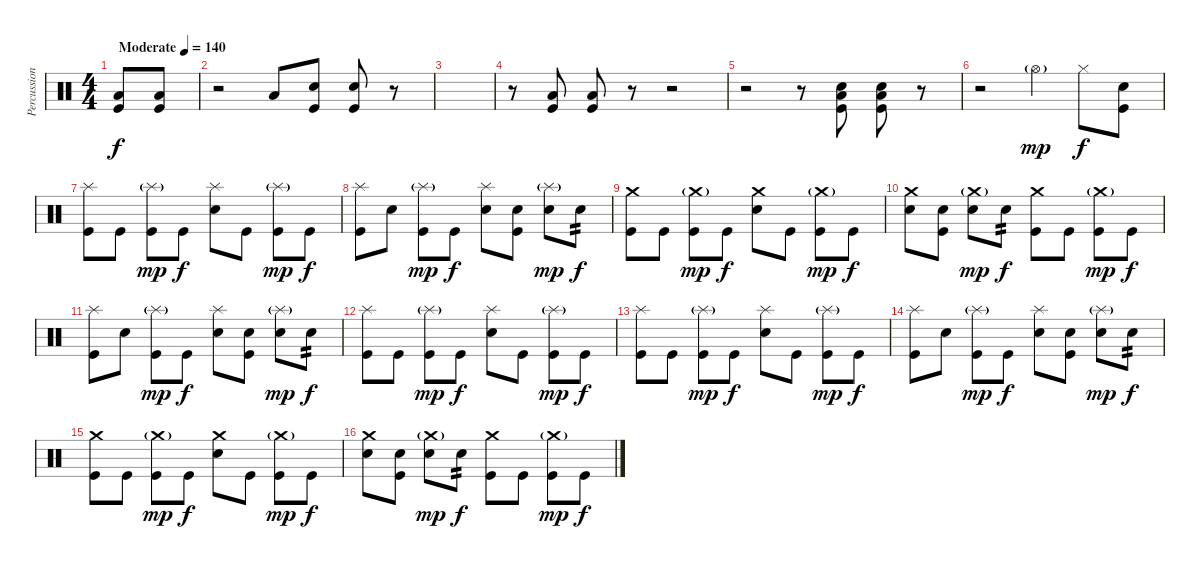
\track ("Percussion" "Percussion") {instrument percussion}
\staff {score}
\articulation defaults
\ts (4 4)
\tempo (140 "Moderate")
\clef neutral
\ks c
("Low Floor Tom (hit)" "Kick (hit)").8{dy f} ("Low Floor Tom (hit)" "Kick (hit)").8 |
r.2 "Low Floor Tom (hit)".8 ("Snare (hit) 2" "Kick (hit)").8 ("Snare (hit) 2" "Kick (hit)").8 r.8 |
|
r.8 ("Low Floor Tom (hit)" "Kick (hit)").8 ("Low Floor Tom (hit)" "Kick (hit)").8 r.8 r.2 |
r.2 r.8 ("Snare (hit) 2" "Low Floor Tom (hit)" "Kick (hit)").8 ("Snare (hit) 2" "Low Floor Tom (hit)" "Kick (hit)").8 r.8 |
r.2 "Hi-Hat (open)"{g}.4{dy mp} "Hi-Hat (closed)".8{dy f} ("Snare (hit) 2" "Kick (hit)").8 |
("Splash (hit)" "Kick (hit)").8 "Kick (hit)".8 ("Splash (hit)"{g} "Kick (hit)").8{dy mp} "Kick (hit)".8{dy f} ("Splash (hit)" "Snare (hit) 2").8 "Kick (hit)".8 ("Splash (hit)"{g} "Kick (hit)").8{dy mp} "Kick (hit)".8{dy f} |
("Splash (hit)" "Kick (hit)").8 "Snare (hit) 2".8 ("Splash (hit)"{g} "Kick (hit)").8{dy mp} "Kick (hit)".8{dy f} ("Splash (hit)" "Snare (hit) 2").8 ("Snare (hit) 2" "Kick (hit)").8 ("Splash (hit)"{g} "Snare (hit) 2").8{dy mp} "Snare (hit) 2".8{tp 2 dy f} |
("Crash medium (hit)" "Kick (hit)").8 "Kick (hit)".8 ("Crash medium (hit)"{g} "Kick (hit)").8{dy mp} "Kick (hit)".8{dy f} ("Crash medium (hit)" "Snare (hit) 2").8 "Kick (hit)".8 ("Crash medium (hit)"{g} "Kick (hit)").8{dy mp} "Kick (hit)".8{dy f} |
("Crash medium (hit)" "Snare (hit) 2").8 ("Snare (hit) 2" "Kick (hit)").8 ("Crash medium (hit)"{g} "Snare (hit) 2").8{dy mp} "Snare (hit) 2".8{tp 2 dy f} ("Crash medium (hit)" "Kick (hit)").8 "Kick (hit)".8 ("Crash medium (hit)"{g} "Kick (hit)").8{dy mp} "Kick (hit)".8{dy f} |
("Splash (hit)" "Kick (hit)").8 "Snare (hit) 2".8 ("Splash (hit)"{g} "Kick (hit)").8{dy mp} "Kick (hit)".8{dy f} ("Splash (hit)" "Snare (hit) 2").8 ("Snare (hit) 2" "Kick (hit)").8 ("Splash (hit)"{g} "Snare (hit) 2").8{dy mp} "Snare (hit) 2".8{tp 2 dy f} |
("Splash (hit)" "Kick (hit)").8 "Kick (hit)".8 ("Splash (hit)"{g} "Kick (hit)").8{dy mp} "Kick (hit)".8{dy f} ("Splash (hit)" "Snare (hit) 2").8 "Kick (hit)".8 ("Splash (hit)"{g} "Kick (hit)").8{dy mp} "Kick (hit)".8{dy f} |
("Splash (hit)" "Kick (hit)").8 "Kick (hit)".8 ("Splash (hit)"{g} "Kick (hit)").8{dy mp} "Kick (hit)".8{dy f} ("Splash (hit)" "Snare (hit) 2").8 "Kick (hit)".8 ("Splash (hit)"{g} "Kick (hit)").8{dy mp} "Kick (hit)".8{dy f} |
("Splash (hit)" "Kick (hit)").8 "Snare (hit) 2".8 ("Splash (hit)"{g} "Kick (hit)").8{dy mp} "Kick (hit)".8{dy f} ("Splash (hit)" "Snare (hit) 2").8 ("Snare (hit) 2" "Kick (hit)").8 ("Splash (hit)"{g} "Snare (hit) 2").8{dy mp} "Snare (hit) 2".8{tp 2 dy f} |
("Crash medium (hit)" "Kick (hit)").8 "Kick (hit)".8 ("Crash medium (hit)"{g} "Kick (hit)").8{dy mp} "Kick (hit)".8{dy f} ("Crash medium (hit)" "Snare (hit) 2").8 "Kick (hit)".8 ("Crash medium (hit)"{g} "Kick (hit)").8{dy mp} "Kick (hit)".8{dy f} |
("Crash medium (hit)" "Snare (hit) 2").8 ("Snare (hit) 2" "Kick (hit)").8 ("Crash medium (hit)"{g} "Snare (hit) 2").8{dy mp} "Snare (hit) 2".8{tp 2 dy f} ("Crash medium (hit)" "Kick (hit)").8 "Kick (hit)".8 ("Crash medium (hit)"{g} "Kick (hit)").8{dy mp} "Kick (hit)".8{dy f}
